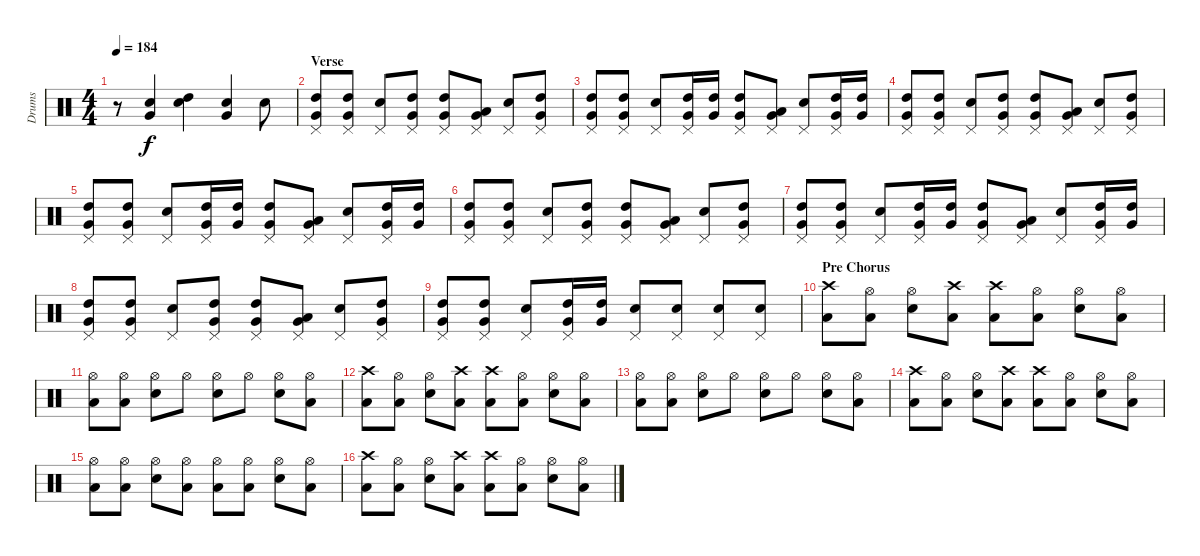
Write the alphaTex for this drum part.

\track ("Drums" "Drums") {instrument percussion}
\staff {score}
\articulation defaults
\ts (4 4)
\tempo 184
\clef neutral
\ks c
r.8{dy f} ("Electric Snare (hit)" "Very Low Tom (hit)").4 ("Snare (hit) 2" "High Tom (hit)").4 ("Electric Snare (hit)" "Very Low Tom (hit)").4 "Electric Snare (hit)".8 |
\section ("" "Verse")
("Pedal Hi-Hat (hit)" "High Tom (hit)" "Very Low Tom (hit)").8 ("Pedal Hi-Hat (hit)" "High Tom (hit)" "Very Low Tom (hit)").8 ("Pedal Hi-Hat (hit)" "Electric Snare (hit)").8 ("Pedal Hi-Hat (hit)" "High Tom (hit)" "Very Low Tom (hit)").8 ("Pedal Hi-Hat (hit)" "High Tom (hit)" "Very Low Tom (hit)").8 ("Pedal Hi-Hat (hit)" "Low Tom (hit)" "Very Low Tom (hit)").8 ("Pedal Hi-Hat (hit)" "Electric Snare (hit)").8 ("Pedal Hi-Hat (hit)" "High Tom (hit)" "Very Low Tom (hit)").8 |
("Pedal Hi-Hat (hit)" "High Tom (hit)" "Very Low Tom (hit)").8 ("Pedal Hi-Hat (hit)" "High Tom (hit)" "Very Low Tom (hit)").8 ("Pedal Hi-Hat (hit)" "Electric Snare (hit)").8 ("Pedal Hi-Hat (hit)" "High Tom (hit)" "Very Low Tom (hit)").16 ("High Tom (hit)" "Very Low Tom (hit)").16 ("Pedal Hi-Hat (hit)" "High Tom (hit)" "Very Low Tom (hit)").8 ("Pedal Hi-Hat (hit)" "Low Tom (hit)" "Very Low Tom (hit)").8 ("Pedal Hi-Hat (hit)" "Electric Snare (hit)").8 ("Pedal Hi-Hat (hit)" "High Tom (hit)" "Very Low Tom (hit)").16 ("High Tom (hit)" "Very Low Tom (hit)").16 |
("Pedal Hi-Hat (hit)" "High Tom (hit)" "Very Low Tom (hit)").8 ("Pedal Hi-Hat (hit)" "High Tom (hit)" "Very Low Tom (hit)").8 ("Pedal Hi-Hat (hit)" "Electric Snare (hit)").8 ("Pedal Hi-Hat (hit)" "High Tom (hit)" "Very Low Tom (hit)").8 ("Pedal Hi-Hat (hit)" "High Tom (hit)" "Very Low Tom (hit)").8 ("Pedal Hi-Hat (hit)" "Low Tom (hit)" "Very Low Tom (hit)").8 ("Pedal Hi-Hat (hit)" "Electric Snare (hit)").8 ("Pedal Hi-Hat (hit)" "High Tom (hit)" "Very Low Tom (hit)").8 |
("Pedal Hi-Hat (hit)" "High Tom (hit)" "Very Low Tom (hit)").8 ("Pedal Hi-Hat (hit)" "High Tom (hit)" "Very Low Tom (hit)").8 ("Pedal Hi-Hat (hit)" "Electric Snare (hit)").8 ("Pedal Hi-Hat (hit)" "High Tom (hit)" "Very Low Tom (hit)").16 ("High Tom (hit)" "Very Low Tom (hit)").16 ("Pedal Hi-Hat (hit)" "High Tom (hit)" "Very Low Tom (hit)").8 ("Pedal Hi-Hat (hit)" "Low Tom (hit)" "Very Low Tom (hit)").8 ("Pedal Hi-Hat (hit)" "Electric Snare (hit)").8 ("Pedal Hi-Hat (hit)" "High Tom (hit)" "Very Low Tom (hit)").16 ("High Tom (hit)" "Very Low Tom (hit)").16 |
("Pedal Hi-Hat (hit)" "High Tom (hit)" "Very Low Tom (hit)").8 ("Pedal Hi-Hat (hit)" "High Tom (hit)" "Very Low Tom (hit)").8 ("Pedal Hi-Hat (hit)" "Electric Snare (hit)").8 ("Pedal Hi-Hat (hit)" "High Tom (hit)" "Very Low Tom (hit)").8 ("Pedal Hi-Hat (hit)" "High Tom (hit)" "Very Low Tom (hit)").8 ("Pedal Hi-Hat (hit)" "Low Tom (hit)" "Very Low Tom (hit)").8 ("Pedal Hi-Hat (hit)" "Electric Snare (hit)").8 ("Pedal Hi-Hat (hit)" "High Tom (hit)" "Very Low Tom (hit)").8 |
("Pedal Hi-Hat (hit)" "High Tom (hit)" "Very Low Tom (hit)").8 ("Pedal Hi-Hat (hit)" "High Tom (hit)" "Very Low Tom (hit)").8 ("Pedal Hi-Hat (hit)" "Electric Snare (hit)").8 ("Pedal Hi-Hat (hit)" "High Tom (hit)" "Very Low Tom (hit)").16 ("High Tom (hit)" "Very Low Tom (hit)").16 ("Pedal Hi-Hat (hit)" "High Tom (hit)" "Very Low Tom (hit)").8 ("Pedal Hi-Hat (hit)" "Low Tom (hit)" "Very Low Tom (hit)").8 ("Pedal Hi-Hat (hit)" "Electric Snare (hit)").8 ("Pedal Hi-Hat (hit)" "High Tom (hit)" "Very Low Tom (hit)").16 ("High Tom (hit)" "Very Low Tom (hit)").16 |
("Pedal Hi-Hat (hit)" "High Tom (hit)" "Very Low Tom (hit)").8 ("Pedal Hi-Hat (hit)" "High Tom (hit)" "Very Low Tom (hit)").8 ("Pedal Hi-Hat (hit)" "Electric Snare (hit)").8 ("Pedal Hi-Hat (hit)" "High Tom (hit)" "Very Low Tom (hit)").8 ("Pedal Hi-Hat (hit)" "High Tom (hit)" "Very Low Tom (hit)").8 ("Pedal Hi-Hat (hit)" "Low Tom (hit)" "Very Low Tom (hit)").8 ("Pedal Hi-Hat (hit)" "Electric Snare (hit)").8 ("Pedal Hi-Hat (hit)" "High Tom (hit)" "Very Low Tom (hit)").8 |
("Pedal Hi-Hat (hit)" "High Tom (hit)" "Very Low Tom (hit)").8 ("Pedal Hi-Hat (hit)" "High Tom (hit)" "Very Low Tom (hit)").8 ("Pedal Hi-Hat (hit)" "Electric Snare (hit)").8 ("Pedal Hi-Hat (hit)" "High Tom (hit)" "Very Low Tom (hit)").16 ("High Tom (hit)" "Very Low Tom (hit)").16 ("Pedal Hi-Hat (hit)" "Electric Snare (hit)").8 ("Pedal Hi-Hat (hit)" "Electric Snare (hit)").8 ("Pedal Hi-Hat (hit)" "Electric Snare (hit)").8 ("Pedal Hi-Hat (hit)" "Electric Snare (hit)").8 |
\section ("" "Pre Chorus")
("Crash high (hit)" "Low Tom (hit)").8 ("Hi-Hat (open)" "Low Tom (hit)").8 ("Hi-Hat (open)" "Electric Snare (hit)").8 ("Crash high (hit)" "Low Tom (hit)").8 ("Crash high (hit)" "Low Tom (hit)").8 ("Hi-Hat (open)" "Low Tom (hit)").8 ("Hi-Hat (open)" "Electric Snare (hit)").8 ("Hi-Hat (open)" "Low Tom (hit)").8 |
("Hi-Hat (open)" "Low Tom (hit)").8 ("Hi-Hat (open)" "Low Tom (hit)").8 ("Hi-Hat (open)" "Electric Snare (hit)").8 "Hi-Hat (open)".8 ("Hi-Hat (open)" "Electric Snare (hit)").8 "Hi-Hat (open)".8 ("Hi-Hat (open)" "Electric Snare (hit)").8 ("Hi-Hat (open)" "Low Tom (hit)").8 |
("Crash high (hit)" "Low Tom (hit)").8 ("Hi-Hat (open)" "Low Tom (hit)").8 ("Hi-Hat (open)" "Electric Snare (hit)").8 ("Crash high (hit)" "Low Tom (hit)").8 ("Crash high (hit)" "Low Tom (hit)").8 ("Hi-Hat (open)" "Low Tom (hit)").8 ("Hi-Hat (open)" "Electric Snare (hit)").8 ("Hi-Hat (open)" "Low Tom (hit)").8 |
("Hi-Hat (open)" "Low Tom (hit)").8 ("Hi-Hat (open)" "Low Tom (hit)").8 ("Hi-Hat (open)" "Electric Snare (hit)").8 "Hi-Hat (open)".8 ("Hi-Hat (open)" "Electric Snare (hit)").8 "Hi-Hat (open)".8 ("Hi-Hat (open)" "Electric Snare (hit)").8 ("Hi-Hat (open)" "Low Tom (hit)").8 |
("Crash high (hit)" "Low Tom (hit)").8 ("Hi-Hat (open)" "Low Tom (hit)").8 ("Hi-Hat (open)" "Electric Snare (hit)").8 ("Crash high (hit)" "Low Tom (hit)").8 ("Crash high (hit)" "Low Tom (hit)").8 ("Hi-Hat (open)" "Low Tom (hit)").8 ("Hi-Hat (open)" "Electric Snare (hit)").8 ("Hi-Hat (open)" "Low Tom (hit)").8 |
("Hi-Hat (open)" "Low Tom (hit)").8 ("Hi-Hat (open)" "Low Tom (hit)").8 ("Hi-Hat (open)" "Electric Snare (hit)").8 ("Hi-Hat (open)" "Low Tom (hit)").8 ("Hi-Hat (open)" "Low Tom (hit)").8 ("Hi-Hat (open)" "Low Tom (hit)").8 ("Hi-Hat (open)" "Electric Snare (hit)").8 ("Hi-Hat (open)" "Low Tom (hit)").8 |
("Crash high (hit)" "Low Tom (hit)").8 ("Hi-Hat (open)" "Low Tom (hit)").8 ("Hi-Hat (open)" "Electric Snare (hit)").8 ("Crash high (hit)" "Low Tom (hit)").8 ("Crash high (hit)" "Low Tom (hit)").8 ("Hi-Hat (open)" "Low Tom (hit)").8 ("Hi-Hat (open)" "Electric Snare (hit)").8 ("Hi-Hat (open)" "Low Tom (hit)").8
